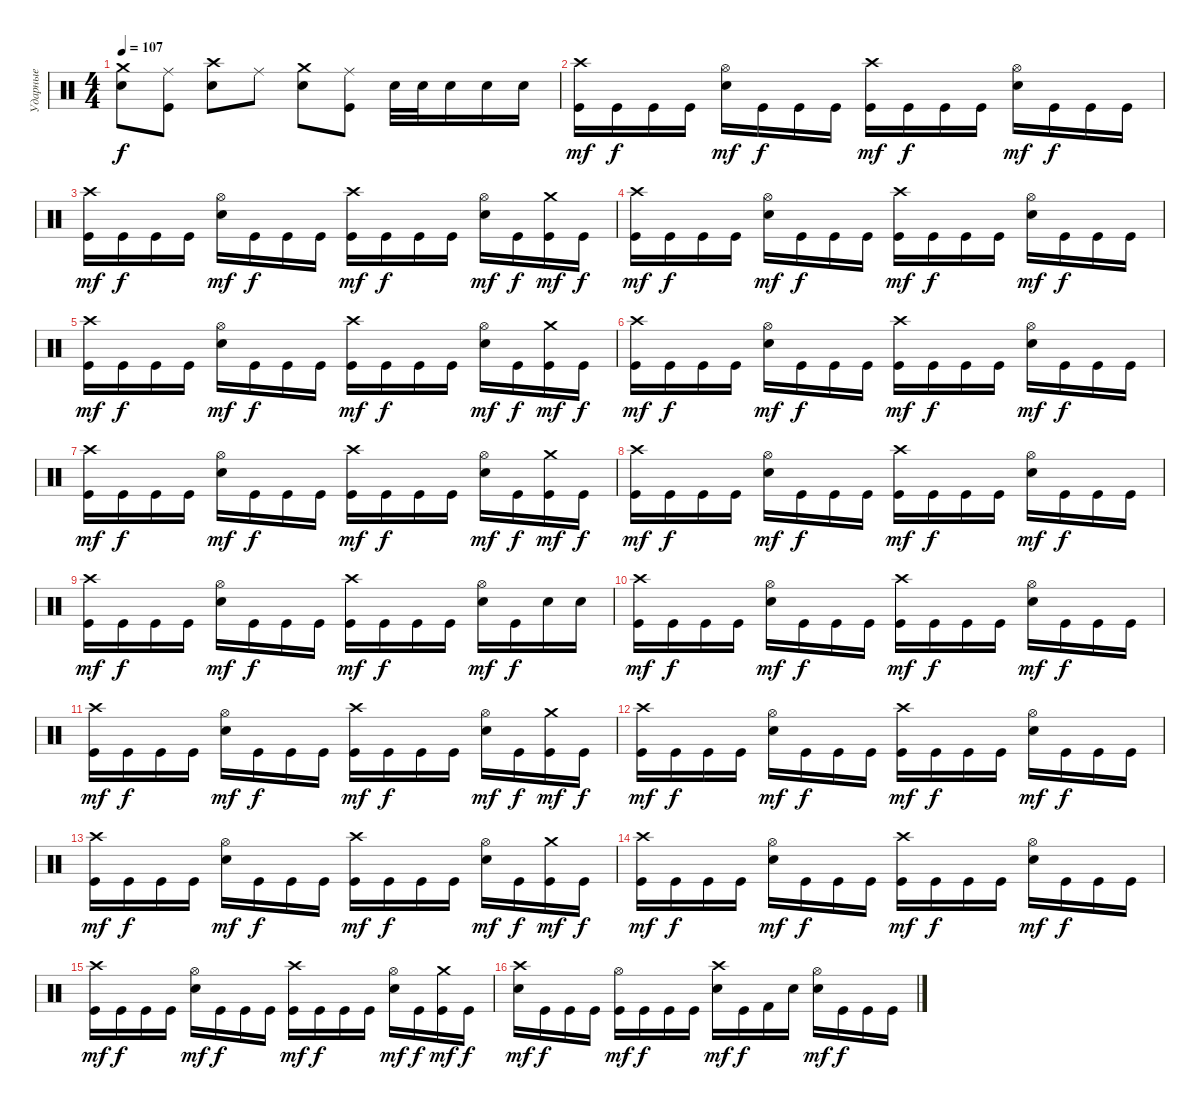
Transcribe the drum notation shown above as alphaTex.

\track ("Ударные" "Ударные") {instrument percussion}
\staff {score}
\articulation defaults
\ts (4 4)
\tempo 107
\clef neutral
\ks c
("Crash medium (hit)" "Electric Snare (hit)").8{dy f} ("Ride (middle)" "Kick (hit)").8 ("Crash high (hit)" "Electric Snare (hit)").8 "Ride (middle)".8 ("Crash medium (hit)" "Electric Snare (hit)").8 ("Kick (hit)" "Ride (middle)").8 "Electric Snare (hit)".32 "Electric Snare (hit)".32 "Electric Snare (hit)".16 "Electric Snare (hit)".16 "Electric Snare (hit)".16 |
("Crash high (hit)" "Kick (hit)").16{dy mf} "Kick (hit)".16{dy f} "Kick (hit)".16 "Kick (hit)".16 ("Hi-Hat (open)" "Electric Snare (hit)").16{dy mf} "Kick (hit)".16{dy f} "Kick (hit)".16 "Kick (hit)".16 ("Crash high (hit)" "Kick (hit)").16{dy mf} "Kick (hit)".16{dy f} "Kick (hit)".16 "Kick (hit)".16 ("Hi-Hat (open)" "Electric Snare (hit)").16{dy mf} "Kick (hit)".16{dy f} "Kick (hit)".16 "Kick (hit)".16 |
("Crash high (hit)" "Kick (hit)").16{dy mf} "Kick (hit)".16{dy f} "Kick (hit)".16 "Kick (hit)".16 ("Hi-Hat (open)" "Electric Snare (hit)").16{dy mf} "Kick (hit)".16{dy f} "Kick (hit)".16 "Kick (hit)".16 ("Crash high (hit)" "Kick (hit)").16{dy mf} "Kick (hit)".16{dy f} "Kick (hit)".16 "Kick (hit)".16 ("Hi-Hat (open)" "Electric Snare (hit)").16{dy mf} "Kick (hit)".16{dy f} ("Crash medium (hit)" "Kick (hit)").16{dy mf} "Kick (hit)".16{dy f} |
("Crash high (hit)" "Kick (hit)").16{dy mf} "Kick (hit)".16{dy f} "Kick (hit)".16 "Kick (hit)".16 ("Hi-Hat (open)" "Electric Snare (hit)").16{dy mf} "Kick (hit)".16{dy f} "Kick (hit)".16 "Kick (hit)".16 ("Crash high (hit)" "Kick (hit)").16{dy mf} "Kick (hit)".16{dy f} "Kick (hit)".16 "Kick (hit)".16 ("Hi-Hat (open)" "Electric Snare (hit)").16{dy mf} "Kick (hit)".16{dy f} "Kick (hit)".16 "Kick (hit)".16 |
("Crash high (hit)" "Kick (hit)").16{dy mf} "Kick (hit)".16{dy f} "Kick (hit)".16 "Kick (hit)".16 ("Hi-Hat (open)" "Electric Snare (hit)").16{dy mf} "Kick (hit)".16{dy f} "Kick (hit)".16 "Kick (hit)".16 ("Crash high (hit)" "Kick (hit)").16{dy mf} "Kick (hit)".16{dy f} "Kick (hit)".16 "Kick (hit)".16 ("Hi-Hat (open)" "Electric Snare (hit)").16{dy mf} "Kick (hit)".16{dy f} ("Crash medium (hit)" "Kick (hit)").16{dy mf} "Kick (hit)".16{dy f} |
("Crash high (hit)" "Kick (hit)").16{dy mf} "Kick (hit)".16{dy f} "Kick (hit)".16 "Kick (hit)".16 ("Hi-Hat (open)" "Electric Snare (hit)").16{dy mf} "Kick (hit)".16{dy f} "Kick (hit)".16 "Kick (hit)".16 ("Crash high (hit)" "Kick (hit)").16{dy mf} "Kick (hit)".16{dy f} "Kick (hit)".16 "Kick (hit)".16 ("Hi-Hat (open)" "Electric Snare (hit)").16{dy mf} "Kick (hit)".16{dy f} "Kick (hit)".16 "Kick (hit)".16 |
("Crash high (hit)" "Kick (hit)").16{dy mf} "Kick (hit)".16{dy f} "Kick (hit)".16 "Kick (hit)".16 ("Hi-Hat (open)" "Electric Snare (hit)").16{dy mf} "Kick (hit)".16{dy f} "Kick (hit)".16 "Kick (hit)".16 ("Crash high (hit)" "Kick (hit)").16{dy mf} "Kick (hit)".16{dy f} "Kick (hit)".16 "Kick (hit)".16 ("Hi-Hat (open)" "Electric Snare (hit)").16{dy mf} "Kick (hit)".16{dy f} ("Crash medium (hit)" "Kick (hit)").16{dy mf} "Kick (hit)".16{dy f} |
("Crash high (hit)" "Kick (hit)").16{dy mf} "Kick (hit)".16{dy f} "Kick (hit)".16 "Kick (hit)".16 ("Hi-Hat (open)" "Electric Snare (hit)").16{dy mf} "Kick (hit)".16{dy f} "Kick (hit)".16 "Kick (hit)".16 ("Crash high (hit)" "Kick (hit)").16{dy mf} "Kick (hit)".16{dy f} "Kick (hit)".16 "Kick (hit)".16 ("Hi-Hat (open)" "Electric Snare (hit)").16{dy mf} "Kick (hit)".16{dy f} "Kick (hit)".16 "Kick (hit)".16 |
("Crash high (hit)" "Kick (hit)").16{dy mf} "Kick (hit)".16{dy f} "Kick (hit)".16 "Kick (hit)".16 ("Hi-Hat (open)" "Electric Snare (hit)").16{dy mf} "Kick (hit)".16{dy f} "Kick (hit)".16 "Kick (hit)".16 ("Crash high (hit)" "Kick (hit)").16{dy mf} "Kick (hit)".16{dy f} "Kick (hit)".16 "Kick (hit)".16 ("Hi-Hat (open)" "Electric Snare (hit)").16{dy mf} "Kick (hit)".16{dy f} "Electric Snare (hit)".16 "Electric Snare (hit)".16 |
("Crash high (hit)" "Kick (hit)").16{dy mf} "Kick (hit)".16{dy f} "Kick (hit)".16 "Kick (hit)".16 ("Hi-Hat (open)" "Electric Snare (hit)").16{dy mf} "Kick (hit)".16{dy f} "Kick (hit)".16 "Kick (hit)".16 ("Crash high (hit)" "Kick (hit)").16{dy mf} "Kick (hit)".16{dy f} "Kick (hit)".16 "Kick (hit)".16 ("Hi-Hat (open)" "Electric Snare (hit)").16{dy mf} "Kick (hit)".16{dy f} "Kick (hit)".16 "Kick (hit)".16 |
("Crash high (hit)" "Kick (hit)").16{dy mf} "Kick (hit)".16{dy f} "Kick (hit)".16 "Kick (hit)".16 ("Hi-Hat (open)" "Electric Snare (hit)").16{dy mf} "Kick (hit)".16{dy f} "Kick (hit)".16 "Kick (hit)".16 ("Crash high (hit)" "Kick (hit)").16{dy mf} "Kick (hit)".16{dy f} "Kick (hit)".16 "Kick (hit)".16 ("Hi-Hat (open)" "Electric Snare (hit)").16{dy mf} "Kick (hit)".16{dy f} ("Crash medium (hit)" "Kick (hit)").16{dy mf} "Kick (hit)".16{dy f} |
("Crash high (hit)" "Kick (hit)").16{dy mf} "Kick (hit)".16{dy f} "Kick (hit)".16 "Kick (hit)".16 ("Hi-Hat (open)" "Electric Snare (hit)").16{dy mf} "Kick (hit)".16{dy f} "Kick (hit)".16 "Kick (hit)".16 ("Crash high (hit)" "Kick (hit)").16{dy mf} "Kick (hit)".16{dy f} "Kick (hit)".16 "Kick (hit)".16 ("Hi-Hat (open)" "Electric Snare (hit)").16{dy mf} "Kick (hit)".16{dy f} "Kick (hit)".16 "Kick (hit)".16 |
("Crash high (hit)" "Kick (hit)").16{dy mf} "Kick (hit)".16{dy f} "Kick (hit)".16 "Kick (hit)".16 ("Hi-Hat (open)" "Electric Snare (hit)").16{dy mf} "Kick (hit)".16{dy f} "Kick (hit)".16 "Kick (hit)".16 ("Crash high (hit)" "Kick (hit)").16{dy mf} "Kick (hit)".16{dy f} "Kick (hit)".16 "Kick (hit)".16 ("Hi-Hat (open)" "Electric Snare (hit)").16{dy mf} "Kick (hit)".16{dy f} ("Crash medium (hit)" "Kick (hit)").16{dy mf} "Kick (hit)".16{dy f} |
("Crash high (hit)" "Kick (hit)").16{dy mf} "Kick (hit)".16{dy f} "Kick (hit)".16 "Kick (hit)".16 ("Hi-Hat (open)" "Electric Snare (hit)").16{dy mf} "Kick (hit)".16{dy f} "Kick (hit)".16 "Kick (hit)".16 ("Crash high (hit)" "Kick (hit)").16{dy mf} "Kick (hit)".16{dy f} "Kick (hit)".16 "Kick (hit)".16 ("Hi-Hat (open)" "Electric Snare (hit)").16{dy mf} "Kick (hit)".16{dy f} "Kick (hit)".16 "Kick (hit)".16 |
("Crash high (hit)" "Kick (hit)").16{dy mf} "Kick (hit)".16{dy f} "Kick (hit)".16 "Kick (hit)".16 ("Hi-Hat (open)" "Electric Snare (hit)").16{dy mf} "Kick (hit)".16{dy f} "Kick (hit)".16 "Kick (hit)".16 ("Crash high (hit)" "Kick (hit)").16{dy mf} "Kick (hit)".16{dy f} "Kick (hit)".16 "Kick (hit)".16 ("Hi-Hat (open)" "Electric Snare (hit)").16{dy mf} "Kick (hit)".16{dy f} ("Crash medium (hit)" "Kick (hit)").16{dy mf} "Kick (hit)".16{dy f} |
("Crash high (hit)" "Electric Snare (hit)").16{dy mf} "Kick (hit)".16{dy f} "Kick (hit)".16 "Kick (hit)".16 ("Hi-Hat (open)" "Kick (hit)").16{dy mf} "Kick (hit)".16{dy f} "Kick (hit)".16 "Kick (hit)".16 ("Crash high (hit)" "Electric Snare (hit)").16{dy mf} "Kick (hit)".16{dy f} "Kick (hit) 2".16 "Electric Snare (hit)".16 ("Hi-Hat (open)" "Electric Snare (hit)").16{dy mf} "Kick (hit)".16{dy f} "Kick (hit)".16 "Kick (hit)".16
